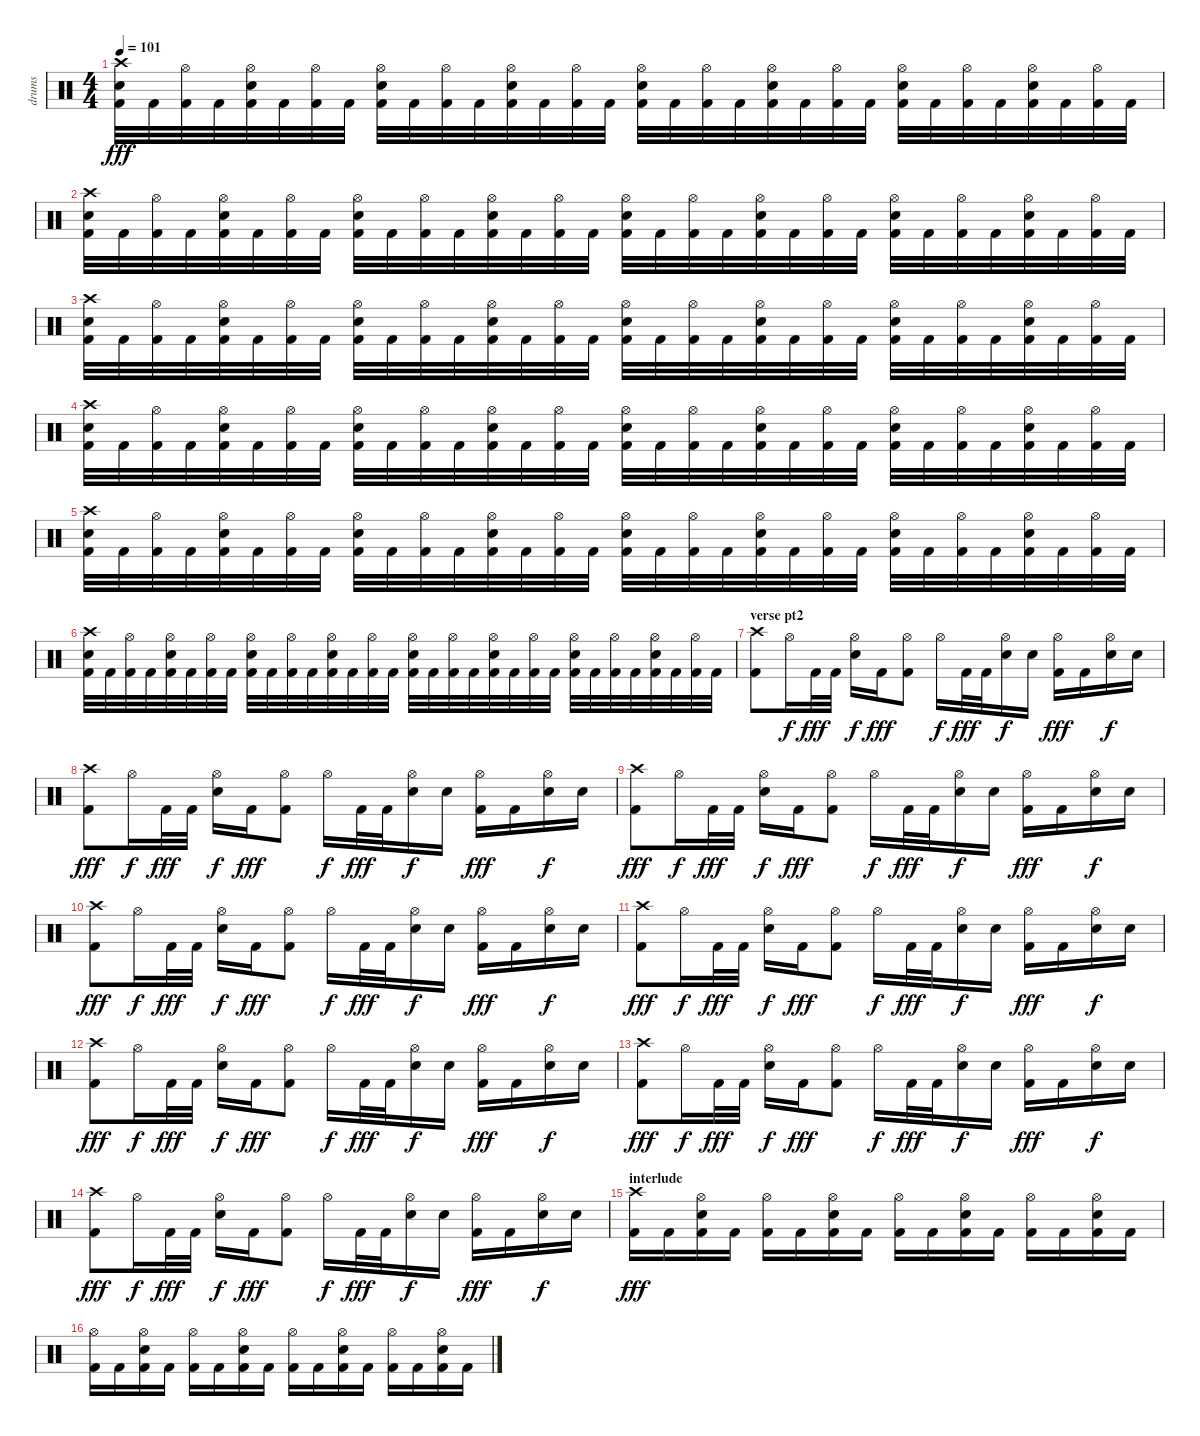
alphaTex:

\track ("drums" "drums") {instrument percussion}
\staff {score}
\articulation defaults
\ts (4 4)
\tempo 101
\clef neutral
\ks c
("Crash high (hit)" "Snare (hit) 2" "Kick (hit) 2").32{dy fff} "Kick (hit) 2".32 ("Hi-Hat (open)" "Kick (hit) 2").32 "Kick (hit) 2".32 ("Hi-Hat (open)" "Snare (hit) 2" "Kick (hit) 2").32 "Kick (hit) 2".32 ("Hi-Hat (open)" "Kick (hit) 2").32 "Kick (hit) 2".32 ("Hi-Hat (open)" "Snare (hit) 2" "Kick (hit) 2").32 "Kick (hit) 2".32 ("Hi-Hat (open)" "Kick (hit) 2").32 "Kick (hit) 2".32 ("Hi-Hat (open)" "Snare (hit) 2" "Kick (hit) 2").32 "Kick (hit) 2".32 ("Hi-Hat (open)" "Kick (hit) 2").32 "Kick (hit) 2".32 ("Hi-Hat (open)" "Snare (hit) 2" "Kick (hit) 2").32 "Kick (hit) 2".32 ("Hi-Hat (open)" "Kick (hit) 2").32 "Kick (hit) 2".32 ("Hi-Hat (open)" "Snare (hit) 2" "Kick (hit) 2").32 "Kick (hit) 2".32 ("Hi-Hat (open)" "Kick (hit) 2").32 "Kick (hit) 2".32 ("Hi-Hat (open)" "Snare (hit) 2" "Kick (hit) 2").32 "Kick (hit) 2".32 ("Hi-Hat (open)" "Kick (hit) 2").32 "Kick (hit) 2".32 ("Hi-Hat (open)" "Snare (hit) 2" "Kick (hit) 2").32 "Kick (hit) 2".32 ("Hi-Hat (open)" "Kick (hit) 2").32 "Kick (hit) 2".32 |
("Crash high (hit)" "Snare (hit) 2" "Kick (hit) 2").32 "Kick (hit) 2".32 ("Hi-Hat (open)" "Kick (hit) 2").32 "Kick (hit) 2".32 ("Hi-Hat (open)" "Snare (hit) 2" "Kick (hit) 2").32 "Kick (hit) 2".32 ("Hi-Hat (open)" "Kick (hit) 2").32 "Kick (hit) 2".32 ("Hi-Hat (open)" "Snare (hit) 2" "Kick (hit) 2").32 "Kick (hit) 2".32 ("Hi-Hat (open)" "Kick (hit) 2").32 "Kick (hit) 2".32 ("Hi-Hat (open)" "Snare (hit) 2" "Kick (hit) 2").32 "Kick (hit) 2".32 ("Hi-Hat (open)" "Kick (hit) 2").32 "Kick (hit) 2".32 ("Hi-Hat (open)" "Snare (hit) 2" "Kick (hit) 2").32 "Kick (hit) 2".32 ("Hi-Hat (open)" "Kick (hit) 2").32 "Kick (hit) 2".32 ("Hi-Hat (open)" "Snare (hit) 2" "Kick (hit) 2").32 "Kick (hit) 2".32 ("Hi-Hat (open)" "Kick (hit) 2").32 "Kick (hit) 2".32 ("Hi-Hat (open)" "Snare (hit) 2" "Kick (hit) 2").32 "Kick (hit) 2".32 ("Hi-Hat (open)" "Kick (hit) 2").32 "Kick (hit) 2".32 ("Hi-Hat (open)" "Snare (hit) 2" "Kick (hit) 2").32 "Kick (hit) 2".32 ("Hi-Hat (open)" "Kick (hit) 2").32 "Kick (hit) 2".32 |
("Crash high (hit)" "Snare (hit) 2" "Kick (hit) 2").32 "Kick (hit) 2".32 ("Hi-Hat (open)" "Kick (hit) 2").32 "Kick (hit) 2".32 ("Hi-Hat (open)" "Snare (hit) 2" "Kick (hit) 2").32 "Kick (hit) 2".32 ("Hi-Hat (open)" "Kick (hit) 2").32 "Kick (hit) 2".32 ("Hi-Hat (open)" "Snare (hit) 2" "Kick (hit) 2").32 "Kick (hit) 2".32 ("Hi-Hat (open)" "Kick (hit) 2").32 "Kick (hit) 2".32 ("Hi-Hat (open)" "Snare (hit) 2" "Kick (hit) 2").32 "Kick (hit) 2".32 ("Hi-Hat (open)" "Kick (hit) 2").32 "Kick (hit) 2".32 ("Hi-Hat (open)" "Snare (hit) 2" "Kick (hit) 2").32 "Kick (hit) 2".32 ("Hi-Hat (open)" "Kick (hit) 2").32 "Kick (hit) 2".32 ("Hi-Hat (open)" "Snare (hit) 2" "Kick (hit) 2").32 "Kick (hit) 2".32 ("Hi-Hat (open)" "Kick (hit) 2").32 "Kick (hit) 2".32 ("Hi-Hat (open)" "Snare (hit) 2" "Kick (hit) 2").32 "Kick (hit) 2".32 ("Hi-Hat (open)" "Kick (hit) 2").32 "Kick (hit) 2".32 ("Hi-Hat (open)" "Snare (hit) 2" "Kick (hit) 2").32 "Kick (hit) 2".32 ("Hi-Hat (open)" "Kick (hit) 2").32 "Kick (hit) 2".32 |
("Crash high (hit)" "Snare (hit) 2" "Kick (hit) 2").32 "Kick (hit) 2".32 ("Hi-Hat (open)" "Kick (hit) 2").32 "Kick (hit) 2".32 ("Hi-Hat (open)" "Snare (hit) 2" "Kick (hit) 2").32 "Kick (hit) 2".32 ("Hi-Hat (open)" "Kick (hit) 2").32 "Kick (hit) 2".32 ("Hi-Hat (open)" "Snare (hit) 2" "Kick (hit) 2").32 "Kick (hit) 2".32 ("Hi-Hat (open)" "Kick (hit) 2").32 "Kick (hit) 2".32 ("Hi-Hat (open)" "Snare (hit) 2" "Kick (hit) 2").32 "Kick (hit) 2".32 ("Hi-Hat (open)" "Kick (hit) 2").32 "Kick (hit) 2".32 ("Hi-Hat (open)" "Snare (hit) 2" "Kick (hit) 2").32 "Kick (hit) 2".32 ("Hi-Hat (open)" "Kick (hit) 2").32 "Kick (hit) 2".32 ("Hi-Hat (open)" "Snare (hit) 2" "Kick (hit) 2").32 "Kick (hit) 2".32 ("Hi-Hat (open)" "Kick (hit) 2").32 "Kick (hit) 2".32 ("Hi-Hat (open)" "Snare (hit) 2" "Kick (hit) 2").32 "Kick (hit) 2".32 ("Hi-Hat (open)" "Kick (hit) 2").32 "Kick (hit) 2".32 ("Hi-Hat (open)" "Snare (hit) 2" "Kick (hit) 2").32 "Kick (hit) 2".32 ("Hi-Hat (open)" "Kick (hit) 2").32 "Kick (hit) 2".32 |
("Crash high (hit)" "Snare (hit) 2" "Kick (hit) 2").32 "Kick (hit) 2".32 ("Hi-Hat (open)" "Kick (hit) 2").32 "Kick (hit) 2".32 ("Hi-Hat (open)" "Snare (hit) 2" "Kick (hit) 2").32 "Kick (hit) 2".32 ("Hi-Hat (open)" "Kick (hit) 2").32 "Kick (hit) 2".32 ("Hi-Hat (open)" "Snare (hit) 2" "Kick (hit) 2").32 "Kick (hit) 2".32 ("Hi-Hat (open)" "Kick (hit) 2").32 "Kick (hit) 2".32 ("Hi-Hat (open)" "Snare (hit) 2" "Kick (hit) 2").32 "Kick (hit) 2".32 ("Hi-Hat (open)" "Kick (hit) 2").32 "Kick (hit) 2".32 ("Hi-Hat (open)" "Snare (hit) 2" "Kick (hit) 2").32 "Kick (hit) 2".32 ("Hi-Hat (open)" "Kick (hit) 2").32 "Kick (hit) 2".32 ("Hi-Hat (open)" "Snare (hit) 2" "Kick (hit) 2").32 "Kick (hit) 2".32 ("Hi-Hat (open)" "Kick (hit) 2").32 "Kick (hit) 2".32 ("Hi-Hat (open)" "Snare (hit) 2" "Kick (hit) 2").32 "Kick (hit) 2".32 ("Hi-Hat (open)" "Kick (hit) 2").32 "Kick (hit) 2".32 ("Hi-Hat (open)" "Snare (hit) 2" "Kick (hit) 2").32 "Kick (hit) 2".32 ("Hi-Hat (open)" "Kick (hit) 2").32 "Kick (hit) 2".32 |
("Crash high (hit)" "Snare (hit) 2" "Kick (hit) 2").32 "Kick (hit) 2".32 ("Hi-Hat (open)" "Kick (hit) 2").32 "Kick (hit) 2".32 ("Hi-Hat (open)" "Snare (hit) 2" "Kick (hit) 2").32 "Kick (hit) 2".32 ("Hi-Hat (open)" "Kick (hit) 2").32 "Kick (hit) 2".32 ("Hi-Hat (open)" "Snare (hit) 2" "Kick (hit) 2").32 "Kick (hit) 2".32 ("Hi-Hat (open)" "Kick (hit) 2").32 "Kick (hit) 2".32 ("Hi-Hat (open)" "Snare (hit) 2" "Kick (hit) 2").32 "Kick (hit) 2".32 ("Hi-Hat (open)" "Kick (hit) 2").32 "Kick (hit) 2".32 ("Hi-Hat (open)" "Snare (hit) 2" "Kick (hit) 2").32 "Kick (hit) 2".32 ("Hi-Hat (open)" "Kick (hit) 2").32 "Kick (hit) 2".32 ("Hi-Hat (open)" "Snare (hit) 2" "Kick (hit) 2").32 "Kick (hit) 2".32 ("Hi-Hat (open)" "Kick (hit) 2").32 "Kick (hit) 2".32 ("Hi-Hat (open)" "Snare (hit) 2" "Kick (hit) 2").32 "Kick (hit) 2".32 ("Hi-Hat (open)" "Kick (hit) 2").32 "Kick (hit) 2".32 ("Hi-Hat (open)" "Snare (hit) 2" "Kick (hit) 2").32 "Kick (hit) 2".32 ("Hi-Hat (open)" "Kick (hit) 2").32 "Kick (hit) 2".32 |
\section ("" "verse pt2")
("Crash high (hit)" "Kick (hit) 2").8 "Hi-Hat (open)".16{dy f} "Kick (hit) 2".32{dy fff} "Kick (hit) 2".32 ("Hi-Hat (open)" "Snare (hit) 2").16{dy f} "Kick (hit) 2".16{dy fff} ("Hi-Hat (open)" "Kick (hit) 2").8 "Hi-Hat (open)".16{dy f} "Kick (hit) 2".32{dy fff} "Kick (hit) 2".32 ("Hi-Hat (open)" "Snare (hit) 2").16{dy f} "Snare (hit) 2".16 ("Hi-Hat (open)" "Kick (hit) 2").16{dy fff} "Kick (hit) 2".16 ("Hi-Hat (open)" "Snare (hit) 2").16{dy f} "Snare (hit) 2".16 |
("Crash high (hit)" "Kick (hit) 2").8{dy fff} "Hi-Hat (open)".16{dy f} "Kick (hit) 2".32{dy fff} "Kick (hit) 2".32 ("Hi-Hat (open)" "Snare (hit) 2").16{dy f} "Kick (hit) 2".16{dy fff} ("Hi-Hat (open)" "Kick (hit) 2").8 "Hi-Hat (open)".16{dy f} "Kick (hit) 2".32{dy fff} "Kick (hit) 2".32 ("Hi-Hat (open)" "Snare (hit) 2").16{dy f} "Snare (hit) 2".16 ("Hi-Hat (open)" "Kick (hit) 2").16{dy fff} "Kick (hit) 2".16 ("Hi-Hat (open)" "Snare (hit) 2").16{dy f} "Snare (hit) 2".16 |
("Crash high (hit)" "Kick (hit) 2").8{dy fff} "Hi-Hat (open)".16{dy f} "Kick (hit) 2".32{dy fff} "Kick (hit) 2".32 ("Hi-Hat (open)" "Snare (hit) 2").16{dy f} "Kick (hit) 2".16{dy fff} ("Hi-Hat (open)" "Kick (hit) 2").8 "Hi-Hat (open)".16{dy f} "Kick (hit) 2".32{dy fff} "Kick (hit) 2".32 ("Hi-Hat (open)" "Snare (hit) 2").16{dy f} "Snare (hit) 2".16 ("Hi-Hat (open)" "Kick (hit) 2").16{dy fff} "Kick (hit) 2".16 ("Hi-Hat (open)" "Snare (hit) 2").16{dy f} "Snare (hit) 2".16 |
("Crash high (hit)" "Kick (hit) 2").8{dy fff} "Hi-Hat (open)".16{dy f} "Kick (hit) 2".32{dy fff} "Kick (hit) 2".32 ("Hi-Hat (open)" "Snare (hit) 2").16{dy f} "Kick (hit) 2".16{dy fff} ("Hi-Hat (open)" "Kick (hit) 2").8 "Hi-Hat (open)".16{dy f} "Kick (hit) 2".32{dy fff} "Kick (hit) 2".32 ("Hi-Hat (open)" "Snare (hit) 2").16{dy f} "Snare (hit) 2".16 ("Hi-Hat (open)" "Kick (hit) 2").16{dy fff} "Kick (hit) 2".16 ("Hi-Hat (open)" "Snare (hit) 2").16{dy f} "Snare (hit) 2".16 |
("Crash high (hit)" "Kick (hit) 2").8{dy fff} "Hi-Hat (open)".16{dy f} "Kick (hit) 2".32{dy fff} "Kick (hit) 2".32 ("Hi-Hat (open)" "Snare (hit) 2").16{dy f} "Kick (hit) 2".16{dy fff} ("Hi-Hat (open)" "Kick (hit) 2").8 "Hi-Hat (open)".16{dy f} "Kick (hit) 2".32{dy fff} "Kick (hit) 2".32 ("Hi-Hat (open)" "Snare (hit) 2").16{dy f} "Snare (hit) 2".16 ("Hi-Hat (open)" "Kick (hit) 2").16{dy fff} "Kick (hit) 2".16 ("Hi-Hat (open)" "Snare (hit) 2").16{dy f} "Snare (hit) 2".16 |
("Crash high (hit)" "Kick (hit) 2").8{dy fff} "Hi-Hat (open)".16{dy f} "Kick (hit) 2".32{dy fff} "Kick (hit) 2".32 ("Hi-Hat (open)" "Snare (hit) 2").16{dy f} "Kick (hit) 2".16{dy fff} ("Hi-Hat (open)" "Kick (hit) 2").8 "Hi-Hat (open)".16{dy f} "Kick (hit) 2".32{dy fff} "Kick (hit) 2".32 ("Hi-Hat (open)" "Snare (hit) 2").16{dy f} "Snare (hit) 2".16 ("Hi-Hat (open)" "Kick (hit) 2").16{dy fff} "Kick (hit) 2".16 ("Hi-Hat (open)" "Snare (hit) 2").16{dy f} "Snare (hit) 2".16 |
("Crash high (hit)" "Kick (hit) 2").8{dy fff} "Hi-Hat (open)".16{dy f} "Kick (hit) 2".32{dy fff} "Kick (hit) 2".32 ("Hi-Hat (open)" "Snare (hit) 2").16{dy f} "Kick (hit) 2".16{dy fff} ("Hi-Hat (open)" "Kick (hit) 2").8 "Hi-Hat (open)".16{dy f} "Kick (hit) 2".32{dy fff} "Kick (hit) 2".32 ("Hi-Hat (open)" "Snare (hit) 2").16{dy f} "Snare (hit) 2".16 ("Hi-Hat (open)" "Kick (hit) 2").16{dy fff} "Kick (hit) 2".16 ("Hi-Hat (open)" "Snare (hit) 2").16{dy f} "Snare (hit) 2".16 |
("Crash high (hit)" "Kick (hit) 2").8{dy fff} "Hi-Hat (open)".16{dy f} "Kick (hit) 2".32{dy fff} "Kick (hit) 2".32 ("Hi-Hat (open)" "Snare (hit) 2").16{dy f} "Kick (hit) 2".16{dy fff} ("Hi-Hat (open)" "Kick (hit) 2").8 "Hi-Hat (open)".16{dy f} "Kick (hit) 2".32{dy fff} "Kick (hit) 2".32 ("Hi-Hat (open)" "Snare (hit) 2").16{dy f} "Snare (hit) 2".16 ("Hi-Hat (open)" "Kick (hit) 2").16{dy fff} "Kick (hit) 2".16 ("Hi-Hat (open)" "Snare (hit) 2").16{dy f} "Snare (hit) 2".16 |
\section ("" "interlude")
("Crash high (hit)" "Kick (hit) 2").16{dy fff} "Kick (hit) 2".16 ("Hi-Hat (open)" "Snare (hit) 2" "Kick (hit) 2").16 "Kick (hit) 2".16 ("Hi-Hat (open)" "Kick (hit) 2").16 "Kick (hit) 2".16 ("Hi-Hat (open)" "Snare (hit) 2" "Kick (hit) 2").16 "Kick (hit) 2".16 ("Hi-Hat (open)" "Kick (hit) 2").16 "Kick (hit) 2".16 ("Hi-Hat (open)" "Snare (hit) 2" "Kick (hit) 2").16 "Kick (hit) 2".16 ("Hi-Hat (open)" "Kick (hit) 2").16 "Kick (hit) 2".16 ("Hi-Hat (open)" "Snare (hit) 2" "Kick (hit) 2").16 "Kick (hit) 2".16 |
("Hi-Hat (open)" "Kick (hit) 2").16 "Kick (hit) 2".16 ("Hi-Hat (open)" "Snare (hit) 2" "Kick (hit) 2").16 "Kick (hit) 2".16 ("Hi-Hat (open)" "Kick (hit) 2").16 "Kick (hit) 2".16 ("Hi-Hat (open)" "Snare (hit) 2" "Kick (hit) 2").16 "Kick (hit) 2".16 ("Hi-Hat (open)" "Kick (hit) 2").16 "Kick (hit) 2".16 ("Hi-Hat (open)" "Snare (hit) 2" "Kick (hit) 2").16 "Kick (hit) 2".16 ("Hi-Hat (open)" "Kick (hit) 2").16 "Kick (hit) 2".16 ("Hi-Hat (open)" "Snare (hit) 2" "Kick (hit) 2").16 "Kick (hit) 2".16
